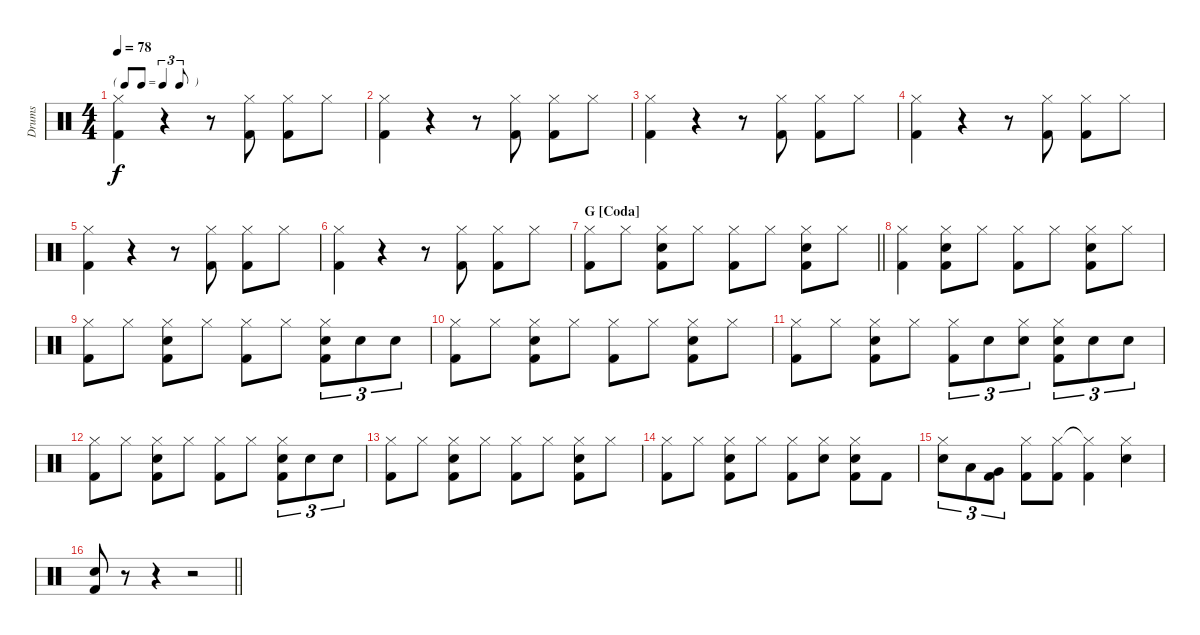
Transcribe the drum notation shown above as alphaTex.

\track ("Drums" "Drums") {instrument percussion}
\staff {score}
\articulation defaults
\ts (4 4)
\tf triplet8th
\tempo 78
\clef neutral
\ks c
("Hi-Hat (closed)" "Kick (hit) 2").4{dy f} r.4 r.8 ("Hi-Hat (closed)" "Kick (hit) 2").8 ("Hi-Hat (closed)" "Kick (hit) 2").8 "Hi-Hat (closed)".8 |
("Hi-Hat (closed)" "Kick (hit) 2").4 r.4 r.8 ("Hi-Hat (closed)" "Kick (hit) 2").8 ("Hi-Hat (closed)" "Kick (hit) 2").8 "Hi-Hat (closed)".8 |
("Hi-Hat (closed)" "Kick (hit) 2").4 r.4 r.8 ("Hi-Hat (closed)" "Kick (hit) 2").8 ("Hi-Hat (closed)" "Kick (hit) 2").8 "Hi-Hat (closed)".8 |
("Hi-Hat (closed)" "Kick (hit) 2").4 r.4 r.8 ("Hi-Hat (closed)" "Kick (hit) 2").8 ("Hi-Hat (closed)" "Kick (hit) 2").8 "Hi-Hat (closed)".8 |
("Hi-Hat (closed)" "Kick (hit) 2").4 r.4 r.8 ("Hi-Hat (closed)" "Kick (hit) 2").8 ("Hi-Hat (closed)" "Kick (hit) 2").8 "Hi-Hat (closed)".8 |
("Hi-Hat (closed)" "Kick (hit) 2").4 r.4 r.8 ("Hi-Hat (closed)" "Kick (hit) 2").8 ("Hi-Hat (closed)" "Kick (hit) 2").8 "Hi-Hat (closed)".8 |
\section ("" "G [Coda]")
\barLineRight lightlight
("Hi-Hat (closed)" "Kick (hit) 2").8 "Hi-Hat (closed)".8 ("Hi-Hat (closed)" "Snare (hit) 2" "Kick (hit) 2").8 "Hi-Hat (closed)".8 ("Hi-Hat (closed)" "Kick (hit) 2").8 "Hi-Hat (closed)".8 ("Hi-Hat (closed)" "Snare (hit) 2" "Kick (hit) 2").8 "Hi-Hat (closed)".8 |
("Hi-Hat (closed)" "Kick (hit) 2").4 ("Hi-Hat (closed)" "Snare (hit) 2" "Kick (hit) 2").8 "Hi-Hat (closed)".8 ("Hi-Hat (closed)" "Kick (hit) 2").8 "Hi-Hat (closed)".8 ("Hi-Hat (closed)" "Snare (hit) 2" "Kick (hit) 2").8 "Hi-Hat (closed)".8 |
("Hi-Hat (closed)" "Kick (hit) 2").8 "Hi-Hat (closed)".8 ("Hi-Hat (closed)" "Snare (hit) 2" "Kick (hit) 2").8 "Hi-Hat (closed)".8 ("Hi-Hat (closed)" "Kick (hit) 2").8 "Hi-Hat (closed)".8 ("Hi-Hat (closed)" "Snare (hit) 2" "Kick (hit) 2").8{tu (3 2)} "Snare (hit) 2".8{tu (3 2)} "Snare (hit) 2".8{tu (3 2)} |
("Hi-Hat (closed)" "Kick (hit) 2").8 "Hi-Hat (closed)".8 ("Hi-Hat (closed)" "Snare (hit) 2" "Kick (hit) 2").8 "Hi-Hat (closed)".8 ("Hi-Hat (closed)" "Kick (hit) 2").8 "Hi-Hat (closed)".8 ("Hi-Hat (closed)" "Snare (hit) 2" "Kick (hit) 2").8 "Hi-Hat (closed)".8 |
("Hi-Hat (closed)" "Kick (hit) 2").8 "Hi-Hat (closed)".8 ("Hi-Hat (closed)" "Snare (hit) 2" "Kick (hit) 2").8 "Hi-Hat (closed)".8 ("Hi-Hat (closed)" "Kick (hit) 2").8{tu (3 2)} "Snare (hit) 2".8{tu (3 2)} ("Hi-Hat (closed)" "Snare (hit) 2").8{tu (3 2)} ("Hi-Hat (closed)" "Snare (hit) 2" "Kick (hit) 2").8{tu (3 2)} "Snare (hit) 2".8{tu (3 2)} "Snare (hit) 2".8{tu (3 2)} |
("Hi-Hat (closed)" "Kick (hit) 2").8 "Hi-Hat (closed)".8 ("Hi-Hat (closed)" "Snare (hit) 2" "Kick (hit) 2").8 "Hi-Hat (closed)".8 ("Hi-Hat (closed)" "Kick (hit) 2").8 "Hi-Hat (closed)".8 ("Hi-Hat (closed)" "Snare (hit) 2" "Kick (hit) 2").8{tu (3 2)} "Snare (hit) 2".8{tu (3 2)} "Snare (hit) 2".8{tu (3 2)} |
("Hi-Hat (closed)" "Kick (hit) 2").8 "Hi-Hat (closed)".8 ("Hi-Hat (closed)" "Snare (hit) 2" "Kick (hit) 2").8 "Hi-Hat (closed)".8 ("Hi-Hat (closed)" "Kick (hit) 2").8 "Hi-Hat (closed)".8 ("Hi-Hat (closed)" "Snare (hit) 2" "Kick (hit) 2").8 "Hi-Hat (closed)".8 |
("Hi-Hat (closed)" "Kick (hit) 2").8 "Hi-Hat (closed)".8 ("Hi-Hat (closed)" "Snare (hit) 2" "Kick (hit) 2").8 "Hi-Hat (closed)".8 ("Hi-Hat (closed)" "Kick (hit) 2").8 ("Hi-Hat (closed)" "Snare (hit) 2").8 ("Hi-Hat (closed)" "Kick (hit) 2" "Snare (hit) 2").8 "Kick (hit) 2".8 |
("Hi-Hat (closed)" "Snare (hit) 2").8{tu (3 2)} "Low Tom (hit)".8{tu (3 2)} ("Very Low Tom (hit)" "Kick (hit) 2").8{tu (3 2)} ("Hi-Hat (closed)" "Kick (hit) 2").8 ("Hi-Hat (closed)" "Kick (hit) 2").8 ("Hi-Hat (closed)"{t} "Kick (hit) 2").4 ("Hi-Hat (closed)" "Snare (hit) 2").4 |
\barLineRight lightlight
("Snare (hit) 2" "Kick (hit) 2").8 r.8 r.4 r.2
